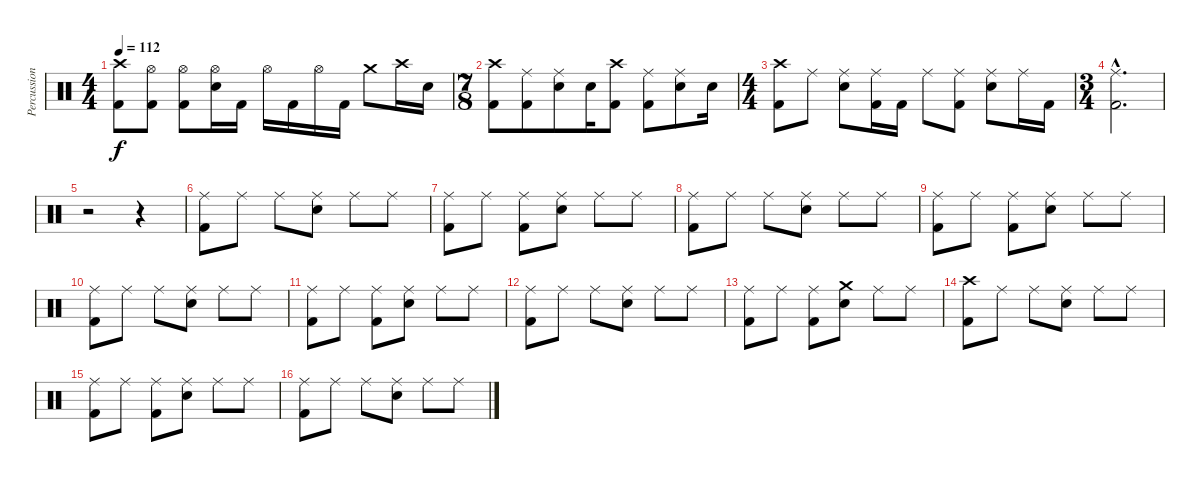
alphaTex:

\track ("Percussion" "Percussion") {instrument percussion}
\staff {score}
\articulation defaults
\ts (4 4)
\tempo 112
\clef neutral
\ks c
("Crash high (hit)" "Kick (hit) 2").8{dy f} ("Hi-Hat (open)" "Kick (hit) 2").8 ("Hi-Hat (open)" "Kick (hit) 2").8 ("Hi-Hat (open)" "Snare (hit) 2").16 "Kick (hit) 2".16 "Hi-Hat (open)".16 "Kick (hit) 2".16 "Hi-Hat (open)".16 "Kick (hit) 2".16 "Crash medium (hit)".8 "Crash high (hit)".16 "Snare (hit) 2".16 |
\ts (7 8)
("Crash high (hit)" "Kick (hit) 2").8 ("Ride (middle)" "Kick (hit) 2").8 ("Ride (middle)" "Snare (hit) 2").8 "Snare (hit) 2".16 ("Crash high (hit)" "Kick (hit) 2").8 ("Ride (middle)" "Kick (hit) 2").8 ("Ride (middle)" "Snare (hit) 2").8 "Snare (hit) 2".16 |
\ts (4 4)
("Crash high (hit)" "Kick (hit) 2").8 "Ride (middle)".8 ("Ride (middle)" "Snare (hit) 2").8 ("Ride (middle)" "Kick (hit) 2").16 "Kick (hit) 2".16 "Ride (middle)".8 ("Ride (middle)" "Kick (hit) 2").8 ("Ride (middle)" "Snare (hit) 2").8 "Ride (middle)".16 "Kick (hit) 2".16 |
\ts (3 4)
("Ride (middle)"{hac} "Kick (hit) 2"{hac}).2{d} |
r.2 r.4 |
("Ride (middle)" "Kick (hit) 2").8 "Ride (middle)".8 "Ride (middle)".8 ("Ride (middle)" "Snare (hit) 2").8 "Ride (middle)".8 "Ride (middle)".8 |
("Ride (middle)" "Kick (hit) 2").8 "Ride (middle)".8 ("Ride (middle)" "Kick (hit) 2").8 ("Ride (middle)" "Snare (hit) 2").8 "Ride (middle)".8 "Ride (middle)".8 |
("Ride (middle)" "Kick (hit) 2").8 "Ride (middle)".8 "Ride (middle)".8 ("Ride (middle)" "Snare (hit) 2").8 "Ride (middle)".8 "Ride (middle)".8 |
("Ride (middle)" "Kick (hit) 2").8 "Ride (middle)".8 ("Ride (middle)" "Kick (hit) 2").8 ("Ride (middle)" "Snare (hit) 2").8 "Ride (middle)".8 "Ride (middle)".8 |
("Ride (middle)" "Kick (hit) 2").8 "Ride (middle)".8 "Ride (middle)".8 ("Ride (middle)" "Snare (hit) 2").8 "Ride (middle)".8 "Ride (middle)".8 |
("Ride (middle)" "Kick (hit) 2").8 "Ride (middle)".8 ("Ride (middle)" "Kick (hit) 2").8 ("Ride (middle)" "Snare (hit) 2").8 "Ride (middle)".8 "Ride (middle)".8 |
("Ride (middle)" "Kick (hit) 2").8 "Ride (middle)".8 "Ride (middle)".8 ("Ride (middle)" "Snare (hit) 2").8 "Ride (middle)".8 "Ride (middle)".8 |
("Ride (middle)" "Kick (hit) 2").8 "Ride (middle)".8 ("Ride (middle)" "Kick (hit) 2").8 ("Crash medium (hit)" "Snare (hit) 2").8 "Ride (middle)".8 "Ride (middle)".8 |
("Crash high (hit)" "Kick (hit) 2").8 "Ride (middle)".8 "Ride (middle)".8 ("Ride (middle)" "Snare (hit) 2").8 "Ride (middle)".8 "Ride (middle)".8 |
("Ride (middle)" "Kick (hit) 2").8 "Ride (middle)".8 ("Ride (middle)" "Kick (hit) 2").8 ("Ride (middle)" "Snare (hit) 2").8 "Ride (middle)".8 "Ride (middle)".8 |
("Ride (middle)" "Kick (hit) 2").8 "Ride (middle)".8 "Ride (middle)".8 ("Ride (middle)" "Snare (hit) 2").8 "Ride (middle)".8 "Ride (middle)".8
